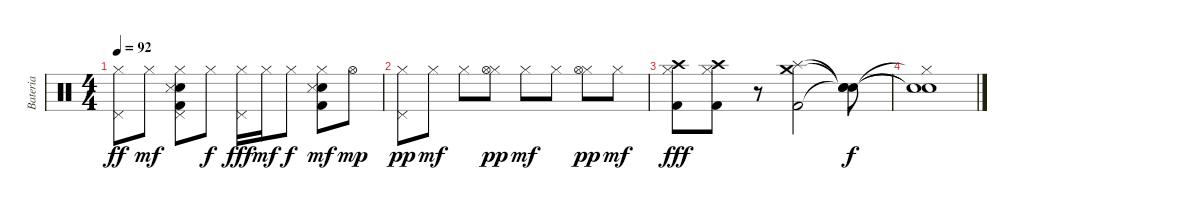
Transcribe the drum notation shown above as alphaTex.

\track ("Bateria" "Bateria") {instrument percussion}
\staff {score}
\articulation defaults
\ts (4 4)
\tempo 92
\clef neutral
\ks c
("Pedal Hi-Hat (hit)" "Hi-Hat (closed)").8{dy ff} "Hi-Hat (closed)".8{dy mf} ("Pedal Hi-Hat (hit)" "Hi-Hat (closed)" "Electric Snare (hit)" "Snare (side stick) 3" "Kick (hit) 2").8 "Hi-Hat (closed)".8{dy f} ("Pedal Hi-Hat (hit)" "Hi-Hat (closed)").16{dy fff} "Hi-Hat (closed)".16{dy mf} "Hi-Hat (closed)".8{dy f} ("Hi-Hat (closed)" "Electric Snare (hit)" "Snare (side stick) 3" "Kick (hit) 2").8{dy mf} "Hi-Hat (open)".8{dy mp} |
("Hi-Hat (closed)" "Pedal Hi-Hat (hit)").8{dy pp} "Hi-Hat (closed)".8{dy mf} "Hi-Hat (closed)".8 ("Hi-Hat (closed)" "Hi-Hat (open)").8{dy pp} "Hi-Hat (closed)".8{dy mf} "Hi-Hat (closed)".8 ("Hi-Hat (closed)" "Hi-Hat (open)").8{dy pp} "Hi-Hat (closed)".8{dy mf} |
("Crash high (hit)" "Hi-Hat (closed)" "Kick (hit) 2").8{dy fff} ("Crash high (hit)" "Hi-Hat (closed)" "Kick (hit) 2").8 r.8 ("Crash medium (hit)" "Splash (hit)" "Kick (hit) 2").2{volume 0} ("Snare (hit)"{t} "Snare (hit)"{t} "Snare (hit)"{t}).8{dy f} |
("Hi-Hat (closed)"{t} "Snare (hit)"{t} "Snare (hit)"{t}).1
